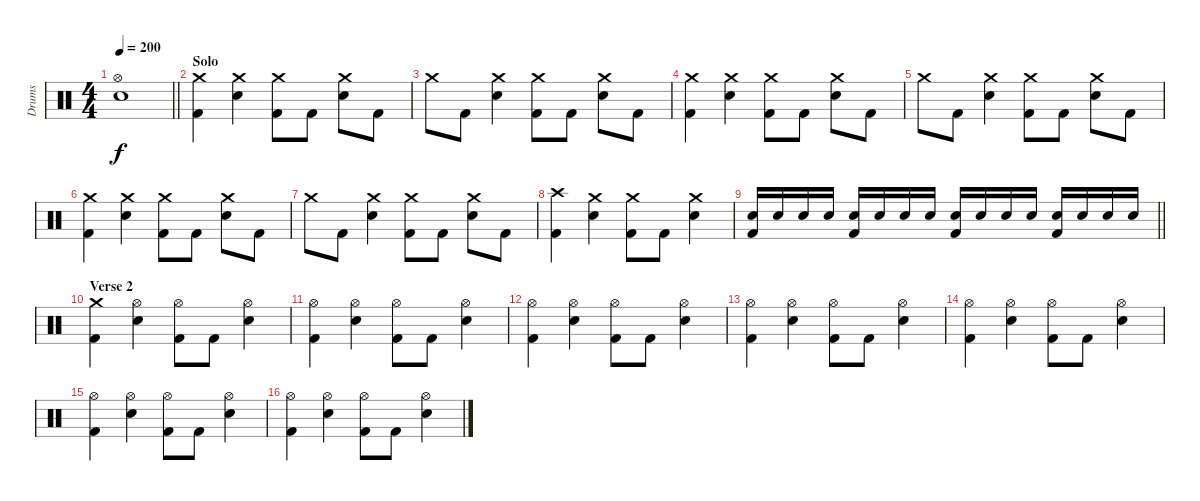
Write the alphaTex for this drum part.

\track ("Drums" "Drums") {instrument percussion}
\staff {score}
\articulation defaults
\ts (4 4)
\tempo 200
\clef neutral
\barLineRight lightlight
\ks c
("Hi-Hat (open)" "Electric Snare (hit)").1{dy f} |
\section ("" "Solo")
("Crash medium (hit)" "Kick (hit) 2").4 ("Crash medium (hit)" "Electric Snare (hit)").4 ("Crash medium (hit)" "Kick (hit) 2").8 "Kick (hit) 2".8 ("Crash medium (hit)" "Electric Snare (hit)").8 "Kick (hit) 2".8 |
"Crash medium (hit)".8 "Kick (hit) 2".8 ("Crash medium (hit)" "Electric Snare (hit)").4 ("Crash medium (hit)" "Kick (hit) 2").8 "Kick (hit) 2".8 ("Crash medium (hit)" "Electric Snare (hit)").8 "Kick (hit) 2".8 |
("Crash medium (hit)" "Kick (hit) 2").4 ("Crash medium (hit)" "Electric Snare (hit)").4 ("Crash medium (hit)" "Kick (hit) 2").8 "Kick (hit) 2".8 ("Crash medium (hit)" "Electric Snare (hit)").8 "Kick (hit) 2".8 |
"Crash medium (hit)".8 "Kick (hit) 2".8 ("Crash medium (hit)" "Electric Snare (hit)").4 ("Crash medium (hit)" "Kick (hit) 2").8 "Kick (hit) 2".8 ("Crash medium (hit)" "Electric Snare (hit)").8 "Kick (hit) 2".8 |
("Crash medium (hit)" "Kick (hit) 2").4 ("Crash medium (hit)" "Electric Snare (hit)").4 ("Crash medium (hit)" "Kick (hit) 2").8 "Kick (hit) 2".8 ("Crash medium (hit)" "Electric Snare (hit)").8 "Kick (hit) 2".8 |
"Crash medium (hit)".8 "Kick (hit) 2".8 ("Crash medium (hit)" "Electric Snare (hit)").4 ("Crash medium (hit)" "Kick (hit) 2").8 "Kick (hit) 2".8 ("Crash medium (hit)" "Electric Snare (hit)").8 "Kick (hit) 2".8 |
("Crash high (hit)" "Kick (hit) 2").4 ("Crash medium (hit)" "Electric Snare (hit)").4 ("Crash medium (hit)" "Kick (hit) 2").8 "Kick (hit) 2".8 ("Crash medium (hit)" "Electric Snare (hit)").4 |
\barLineRight lightlight
("Electric Snare (hit)" "Kick (hit) 2").16 "Electric Snare (hit)".16 "Electric Snare (hit)".16 "Electric Snare (hit)".16 ("Electric Snare (hit)" "Kick (hit) 2").16 "Electric Snare (hit)".16 "Electric Snare (hit)".16 "Electric Snare (hit)".16 ("Electric Snare (hit)" "Kick (hit) 2").16 "Electric Snare (hit)".16 "Electric Snare (hit)".16 "Electric Snare (hit)".16 ("Electric Snare (hit)" "Kick (hit) 2").16 "Electric Snare (hit)".16 "Electric Snare (hit)".16 "Electric Snare (hit)".16 |
\section ("" "Verse 2")
("Crash medium (hit)" "Kick (hit) 2").4 ("Hi-Hat (open)" "Electric Snare (hit)").4 ("Hi-Hat (open)" "Kick (hit) 2").8 "Kick (hit) 2".8 ("Hi-Hat (open)" "Electric Snare (hit)").4 |
("Hi-Hat (open)" "Kick (hit) 2").4 ("Hi-Hat (open)" "Electric Snare (hit)").4 ("Hi-Hat (open)" "Kick (hit) 2").8 "Kick (hit) 2".8 ("Hi-Hat (open)" "Electric Snare (hit)").4 |
("Hi-Hat (open)" "Kick (hit) 2").4 ("Hi-Hat (open)" "Electric Snare (hit)").4 ("Hi-Hat (open)" "Kick (hit) 2").8 "Kick (hit) 2".8 ("Hi-Hat (open)" "Electric Snare (hit)").4 |
("Hi-Hat (open)" "Kick (hit) 2").4 ("Hi-Hat (open)" "Electric Snare (hit)").4 ("Hi-Hat (open)" "Kick (hit) 2").8 "Kick (hit) 2".8 ("Hi-Hat (open)" "Electric Snare (hit)").4 |
("Hi-Hat (open)" "Kick (hit) 2").4 ("Hi-Hat (open)" "Electric Snare (hit)").4 ("Hi-Hat (open)" "Kick (hit) 2").8 "Kick (hit) 2".8 ("Hi-Hat (open)" "Electric Snare (hit)").4 |
("Hi-Hat (open)" "Kick (hit) 2").4 ("Hi-Hat (open)" "Electric Snare (hit)").4 ("Hi-Hat (open)" "Kick (hit) 2").8 "Kick (hit) 2".8 ("Hi-Hat (open)" "Electric Snare (hit)").4 |
("Hi-Hat (open)" "Kick (hit) 2").4 ("Hi-Hat (open)" "Electric Snare (hit)").4 ("Hi-Hat (open)" "Kick (hit) 2").8 "Kick (hit) 2".8 ("Hi-Hat (open)" "Electric Snare (hit)").4
